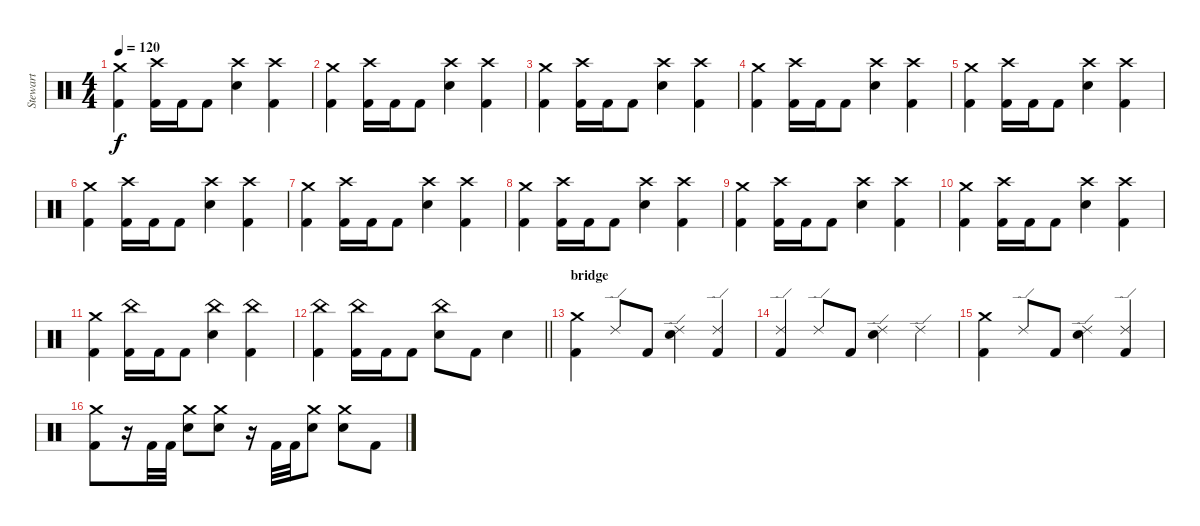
\track ("Stewart" "Stewart") {instrument percussion}
\staff {score}
\articulation defaults
\ts (4 4)
\tempo 120
\clef neutral
\ks c
("Crash medium (hit)" "Kick (hit) 2").4{dy f} ("Crash high (hit)" "Kick (hit) 2").16 "Kick (hit) 2".16 "Kick (hit) 2".8 ("Crash high (hit)" "Electric Snare (hit)").4 ("Crash high (hit)" "Kick (hit) 2").4 |
("Crash medium (hit)" "Kick (hit) 2").4 ("Crash high (hit)" "Kick (hit) 2").16 "Kick (hit) 2".16 "Kick (hit) 2".8 ("Crash high (hit)" "Electric Snare (hit)").4 ("Crash high (hit)" "Kick (hit) 2").4 |
("Crash medium (hit)" "Kick (hit) 2").4 ("Crash high (hit)" "Kick (hit) 2").16 "Kick (hit) 2".16 "Kick (hit) 2".8 ("Crash high (hit)" "Electric Snare (hit)").4 ("Crash high (hit)" "Kick (hit) 2").4 |
("Crash medium (hit)" "Kick (hit) 2").4 ("Crash high (hit)" "Kick (hit) 2").16 "Kick (hit) 2".16 "Kick (hit) 2".8 ("Crash high (hit)" "Electric Snare (hit)").4 ("Crash high (hit)" "Kick (hit) 2").4 |
("Crash medium (hit)" "Kick (hit) 2").4 ("Crash high (hit)" "Kick (hit) 2").16 "Kick (hit) 2".16 "Kick (hit) 2".8 ("Crash high (hit)" "Electric Snare (hit)").4 ("Crash high (hit)" "Kick (hit) 2").4 |
("Crash medium (hit)" "Kick (hit) 2").4 ("Crash high (hit)" "Kick (hit) 2").16 "Kick (hit) 2".16 "Kick (hit) 2".8 ("Crash high (hit)" "Electric Snare (hit)").4 ("Crash high (hit)" "Kick (hit) 2").4 |
("Crash medium (hit)" "Kick (hit) 2").4 ("Crash high (hit)" "Kick (hit) 2").16 "Kick (hit) 2".16 "Kick (hit) 2".8 ("Crash high (hit)" "Electric Snare (hit)").4 ("Crash high (hit)" "Kick (hit) 2").4 |
("Crash medium (hit)" "Kick (hit) 2").4 ("Crash high (hit)" "Kick (hit) 2").16 "Kick (hit) 2".16 "Kick (hit) 2".8 ("Crash high (hit)" "Electric Snare (hit)").4 ("Crash high (hit)" "Kick (hit) 2").4 |
("Crash medium (hit)" "Kick (hit) 2").4 ("Crash high (hit)" "Kick (hit) 2").16 "Kick (hit) 2".16 "Kick (hit) 2".8 ("Crash high (hit)" "Electric Snare (hit)").4 ("Crash high (hit)" "Kick (hit) 2").4 |
("Crash medium (hit)" "Kick (hit) 2").4 ("Crash high (hit)" "Kick (hit) 2").16 "Kick (hit) 2".16 "Kick (hit) 2".8 ("Crash high (hit)" "Electric Snare (hit)").4 ("Crash high (hit)" "Kick (hit) 2").4 |
("Crash medium (hit)" "Kick (hit) 2").4 ("China (hit)" "Kick (hit) 2").16 "Kick (hit) 2".16 "Kick (hit) 2".8 ("China (hit)" "Electric Snare (hit)").4 ("China (hit)" "Kick (hit) 2").4 |
\barLineRight lightlight
("China (hit)" "Kick (hit) 2").4 ("China (hit)" "Kick (hit) 2").16 "Kick (hit) 2".16 "Kick (hit) 2".8 ("China (hit)" "Electric Snare (hit)").8 "Kick (hit) 2".8 "Electric Snare (hit)".4 |
\section ("" "bridge")
("Crash medium (hit)" "Kick (hit) 2").4 "Ride (edge) 2".8 "Kick (hit) 2".8 ("Ride (edge) 2" "Electric Snare (hit)").4 ("Ride (edge) 2" "Kick (hit) 2").4 |
("Ride (edge) 2" "Kick (hit) 2").4 "Ride (edge) 2".8 "Kick (hit) 2".8 ("Ride (edge) 2" "Electric Snare (hit)").4 "Ride (edge) 2".4 |
("Crash medium (hit)" "Kick (hit) 2").4 "Ride (edge) 2".8 "Kick (hit) 2".8 ("Ride (edge) 2" "Electric Snare (hit)").4 ("Ride (edge) 2" "Kick (hit) 2").4 |
("Crash medium (hit)" "Kick (hit) 2").8 r.16 "Kick (hit) 2".32 "Kick (hit) 2".32 ("Crash medium (hit)" "Electric Snare (hit)").8 ("Crash medium (hit)" "Electric Snare (hit)").8 r.16 "Kick (hit) 2".32 "Kick (hit) 2".32 ("Crash medium (hit)" "Electric Snare (hit)").8 ("Crash medium (hit)" "Electric Snare (hit)").8 "Kick (hit) 2".8
